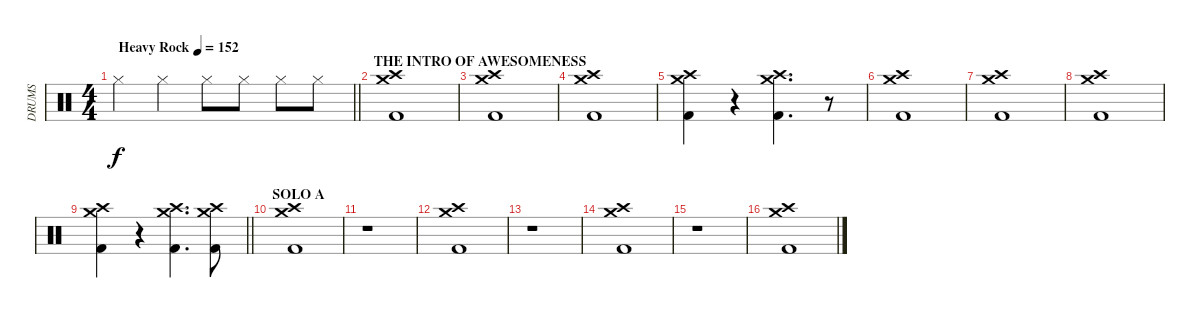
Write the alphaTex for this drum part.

\track ("DRUMS" "DRUMS") {instrument percussion}
\staff {score}
\articulation defaults
\ts (4 4)
\tempo (152 "Heavy Rock")
\clef neutral
\barLineRight lightlight
\ks c "Hi-Hat (closed)".4{dy f} "Hi-Hat (closed)".4 "Hi-Hat (closed)".8 "Hi-Hat (closed)".8 "Hi-Hat (closed)".8 "Hi-Hat (closed)".8
|
\section ("" "THE INTRO OF AWESOMENESS")
("Kick (hit) 2" "Crash high (hit)" "Crash medium (hit)").1 |
("Kick (hit) 2" "Crash high (hit)" "Crash medium (hit)").1 |
("Kick (hit) 2" "Crash high (hit)" "Crash medium (hit)").1 |
("Kick (hit) 2" "Crash high (hit)" "Crash medium (hit)").4 r.4 ("Kick (hit) 2" "Crash high (hit)" "Crash medium (hit)").4{d} r.8 |
("Kick (hit) 2" "Crash high (hit)" "Crash medium (hit)").1 |
("Kick (hit) 2" "Crash high (hit)" "Crash medium (hit)").1 |
("Kick (hit) 2" "Crash high (hit)" "Crash medium (hit)").1 |
\barLineRight lightlight
("Kick (hit) 2" "Crash high (hit)" "Crash medium (hit)").4 r.4 ("Kick (hit) 2" "Crash high (hit)" "Crash medium (hit)").4{d} ("Kick (hit) 2" "Crash high (hit)" "Crash medium (hit)").8 |
\section ("" "SOLO A")
("Kick (hit) 2" "Crash high (hit)" "Crash medium (hit)").1 |
r.1 |
("Kick (hit) 2" "Crash high (hit)" "Crash medium (hit)").1 |
r.1 |
("Kick (hit) 2" "Crash high (hit)" "Crash medium (hit)").1 |
r.1 |
("Kick (hit) 2" "Crash high (hit)" "Crash medium (hit)").1
